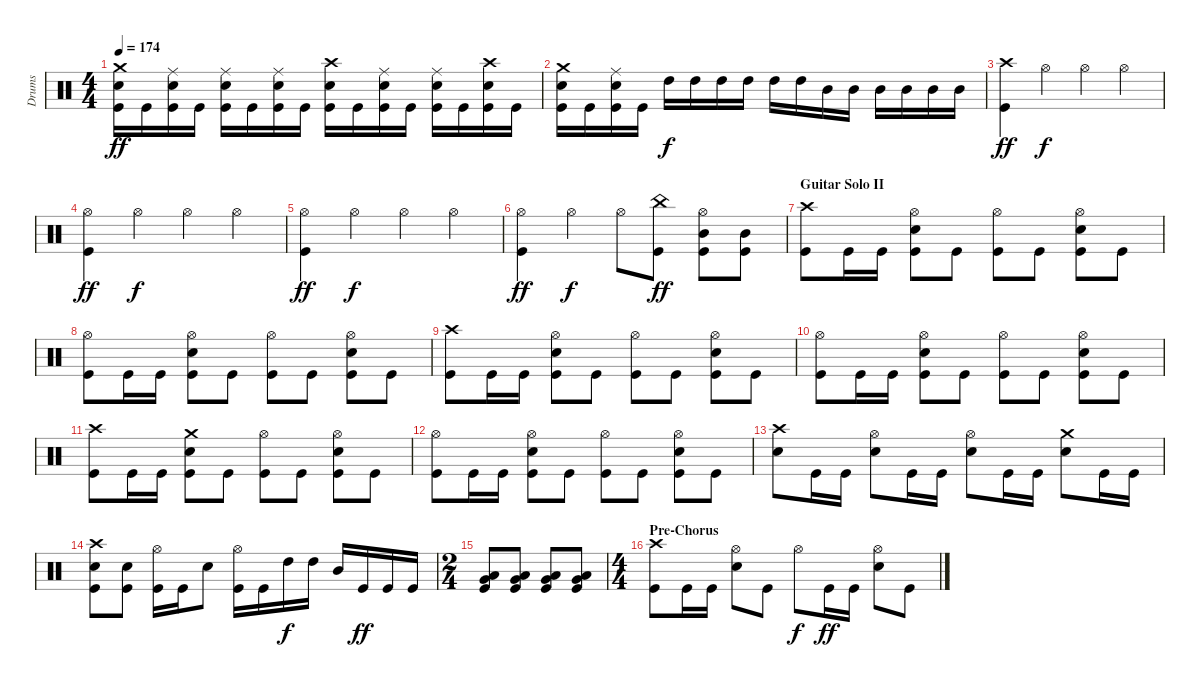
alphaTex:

\track ("Drums" "Drums") {instrument percussion}
\staff {score}
\articulation defaults
\ts (4 4)
\tempo 174
\clef neutral
\ks c
("Crash medium (hit)" "Electric Snare (hit)" "Kick (hit)").16{dy ff} "Kick (hit)".16 ("Ride (middle)" "Electric Snare (hit)" "Kick (hit)").16 "Kick (hit)".16 ("Ride (middle)" "Electric Snare (hit)" "Kick (hit)").16 "Kick (hit)".16 ("Ride (middle)" "Electric Snare (hit)" "Kick (hit)").16 "Kick (hit)".16 ("Crash high (hit)" "Electric Snare (hit)" "Kick (hit)").16 "Kick (hit)".16 ("Ride (middle)" "Electric Snare (hit)" "Kick (hit)").16 "Kick (hit)".16 ("Ride (middle)" "Electric Snare (hit)" "Kick (hit)").16 "Kick (hit)".16 ("Crash high (hit)" "Electric Snare (hit)" "Kick (hit)").16 "Kick (hit)".16 |
("Crash medium (hit)" "Electric Snare (hit)" "Kick (hit)").16 "Kick (hit)".16 ("Ride (middle)" "Electric Snare (hit)" "Kick (hit)").16 "Kick (hit)".16 "High Tom (hit)".16{dy f} "High Tom (hit)".16 "High Tom (hit)".16 "High Tom (hit)".16 "High Tom (hit)".16 "High Tom (hit)".16 "Mid Tom (hit)".16 "Mid Tom (hit)".16 "Mid Tom (hit)".16 "Mid Tom (hit)".16 "Mid Tom (hit)".16 "Mid Tom (hit)".16 |
("Crash high (hit)" "Kick (hit)").4{dy ff} "Hi-Hat (open)".4{dy f} "Hi-Hat (open)".4 "Hi-Hat (open)".4 |
("Hi-Hat (open)" "Kick (hit)").4{dy ff} "Hi-Hat (open)".4{dy f} "Hi-Hat (open)".4 "Hi-Hat (open)".4 |
("Hi-Hat (open)" "Kick (hit)").4{dy ff} "Hi-Hat (open)".4{dy f} "Hi-Hat (open)".4 "Hi-Hat (open)".4 |
("Hi-Hat (open)" "Kick (hit)").4{dy ff} "Hi-Hat (open)".4{dy f} "Hi-Hat (open)".8 ("China (hit)" "Kick (hit)").8{dy ff} ("Hi-Hat (open)" "Mid Tom (hit)" "Kick (hit)").8 ("Mid Tom (hit)" "Kick (hit)").8 |
\section ("" "Guitar Solo II")
("Crash high (hit)" "Kick (hit)").8 "Kick (hit)".16 "Kick (hit)".16 ("Hi-Hat (open)" "Electric Snare (hit)" "Kick (hit)").8 "Kick (hit)".8 ("Hi-Hat (open)" "Kick (hit)").8 "Kick (hit)".8 ("Hi-Hat (open)" "Electric Snare (hit)" "Kick (hit)").8 "Kick (hit)".8 |
("Hi-Hat (open)" "Kick (hit)").8 "Kick (hit)".16 "Kick (hit)".16 ("Hi-Hat (open)" "Electric Snare (hit)" "Kick (hit)").8 "Kick (hit)".8 ("Hi-Hat (open)" "Kick (hit)").8 "Kick (hit)".8 ("Hi-Hat (open)" "Electric Snare (hit)" "Kick (hit)").8 "Kick (hit)".8 |
("Crash high (hit)" "Kick (hit)").8 "Kick (hit)".16 "Kick (hit)".16 ("Hi-Hat (open)" "Electric Snare (hit)" "Kick (hit)").8 "Kick (hit)".8 ("Hi-Hat (open)" "Kick (hit)").8 "Kick (hit)".8 ("Hi-Hat (open)" "Electric Snare (hit)" "Kick (hit)").8 "Kick (hit)".8 |
("Hi-Hat (open)" "Kick (hit)").8 "Kick (hit)".16 "Kick (hit)".16 ("Hi-Hat (open)" "Electric Snare (hit)" "Kick (hit)").8 "Kick (hit)".8 ("Hi-Hat (open)" "Kick (hit)").8 "Kick (hit)".8 ("Hi-Hat (open)" "Electric Snare (hit)" "Kick (hit)").8 "Kick (hit)".8 |
("Crash high (hit)" "Kick (hit)").8 "Kick (hit)".16 "Kick (hit)".16 ("Crash medium (hit)" "Electric Snare (hit)" "Kick (hit)").8 "Kick (hit)".8 ("Hi-Hat (open)" "Kick (hit)").8 "Kick (hit)".8 ("Hi-Hat (open)" "Electric Snare (hit)" "Kick (hit)").8 "Kick (hit)".8 |
("Hi-Hat (open)" "Kick (hit)").8 "Kick (hit)".16 "Kick (hit)".16 ("Hi-Hat (open)" "Electric Snare (hit)" "Kick (hit)").8 "Kick (hit)".8 ("Hi-Hat (open)" "Kick (hit)").8 "Kick (hit)".8 ("Hi-Hat (open)" "Electric Snare (hit)" "Kick (hit)").8 "Kick (hit)".8 |
("Crash high (hit)" "Electric Snare (hit)").8 "Kick (hit)".16 "Kick (hit)".16 ("Hi-Hat (open)" "Electric Snare (hit)").8 "Kick (hit)".16 "Kick (hit)".16 ("Hi-Hat (open)" "Electric Snare (hit)").8 "Kick (hit)".16 "Kick (hit)".16 ("Crash medium (hit)" "Electric Snare (hit)").8 "Kick (hit)".16 "Kick (hit)".16 |
("Crash high (hit)" "Electric Snare (hit)" "Kick (hit)").8 ("Electric Snare (hit)" "Kick (hit)").8 ("Hi-Hat (open)" "Kick (hit)").16 "Kick (hit)".16 "Electric Snare (hit)".8 ("Hi-Hat (open)" "Kick (hit)").16 "Kick (hit)".16 "High Tom (hit)".16{dy f} "High Tom (hit)".16 "Mid Tom (hit)".16 "Kick (hit)".16{dy ff} "Kick (hit)".16 "Kick (hit)".16 |
\ts (2 4)
("Low Tom (hit)" "Very Low Tom (hit)" "Kick (hit)").8 ("Low Tom (hit)" "Very Low Tom (hit)" "Kick (hit)").8 ("Low Tom (hit)" "Very Low Tom (hit)" "Kick (hit)").8 ("Low Tom (hit)" "Very Low Tom (hit)" "Kick (hit)").8 |
\ts (4 4)
\section ("" "Pre-Chorus")
("Crash high (hit)" "Kick (hit)").8 "Kick (hit)".16 "Kick (hit)".16 ("Hi-Hat (open)" "Electric Snare (hit)").8 "Kick (hit)".8 "Hi-Hat (open)".8{dy f} "Kick (hit)".16{dy ff} "Kick (hit)".16 ("Hi-Hat (open)" "Electric Snare (hit)").8 "Kick (hit)".8
